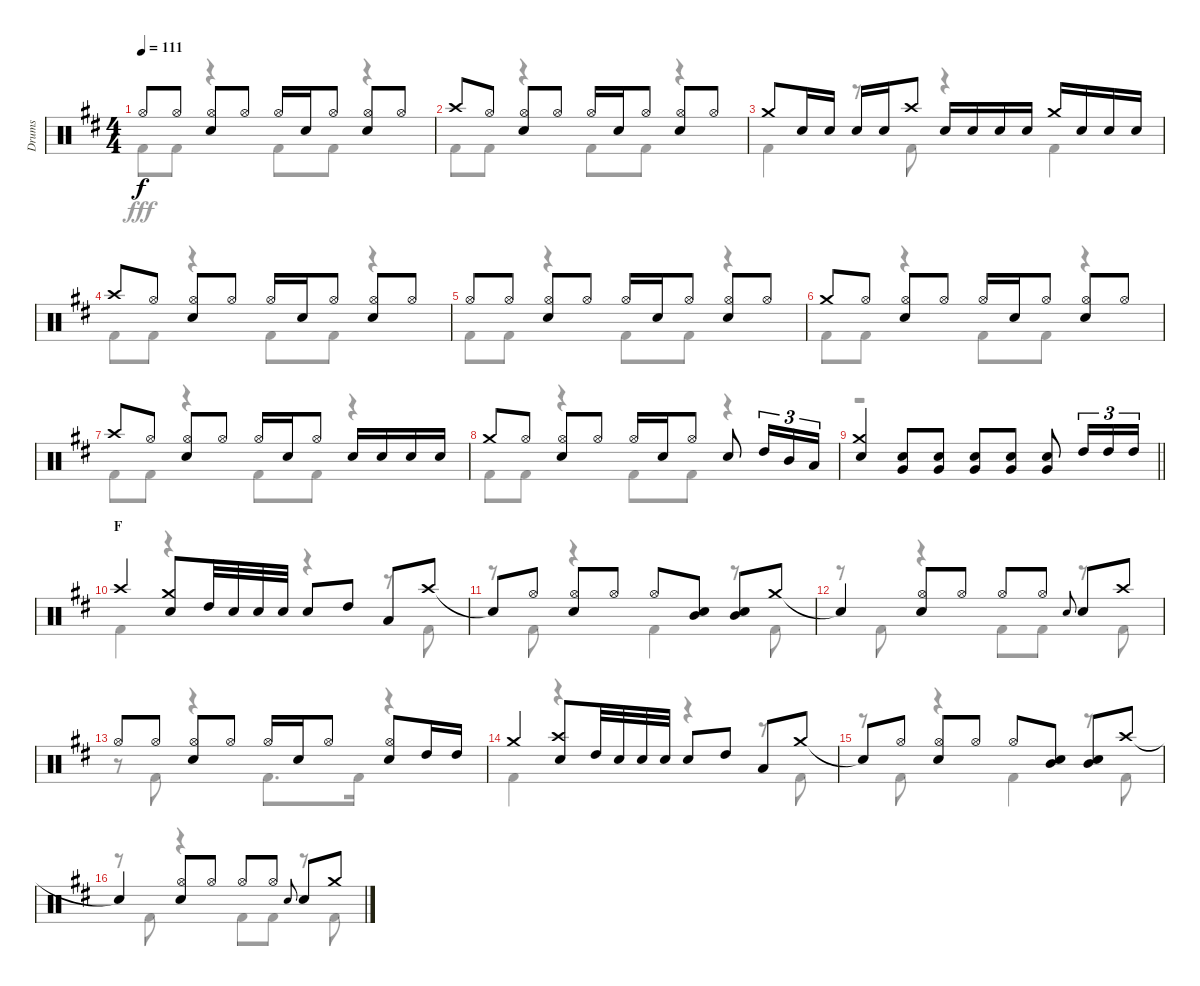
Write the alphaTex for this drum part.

\track ("Drums" "Drums") {instrument percussion}
\staff {score}
\articulation defaults
\voice
\ts (4 4)
\tempo 111
\clef neutral
\ks d "Hi-Hat (open)".8{dy f} "Hi-Hat (open)".8
("Hi-Hat (open)" "Snare (hit) 2").8 "Hi-Hat (open)".8 "Hi-Hat (open)".16 "Snare (hit) 2".16 "Hi-Hat (open)".8 ("Hi-Hat (open)" "Snare (hit) 2").8 "Hi-Hat (open)".8 |
"Crash high (hit)".8 "Hi-Hat (open)".8 ("Hi-Hat (open)" "Snare (hit) 2").8 "Hi-Hat (open)".8 "Hi-Hat (open)".16 "Snare (hit) 2".16 "Hi-Hat (open)".8 ("Hi-Hat (open)" "Snare (hit) 2").8 "Hi-Hat (open)".8 |
"Crash medium (hit)".8 "Snare (hit) 2".16 "Snare (hit) 2".16 "Snare (hit) 2".16 "Snare (hit) 2".16 "Crash high (hit)".8 "Snare (hit) 2".16 "Snare (hit) 2".16 "Snare (hit) 2".16 "Snare (hit) 2".16 "Crash medium (hit)".16 "Snare (hit) 2".16 "Snare (hit) 2".16 "Snare (hit) 2".16 |
"Crash high (hit)".8 "Hi-Hat (open)".8 ("Hi-Hat (open)" "Snare (hit) 2").8 "Hi-Hat (open)".8 "Hi-Hat (open)".16 "Snare (hit) 2".16 "Hi-Hat (open)".8 ("Hi-Hat (open)" "Snare (hit) 2").8 "Hi-Hat (open)".8 |
"Hi-Hat (open)".8 "Hi-Hat (open)".8 ("Hi-Hat (open)" "Snare (hit) 2").8 "Hi-Hat (open)".8 "Hi-Hat (open)".16 "Snare (hit) 2".16 "Hi-Hat (open)".8 ("Hi-Hat (open)" "Snare (hit) 2").8 "Hi-Hat (open)".8 |
"Crash medium (hit)".8 "Hi-Hat (open)".8 ("Hi-Hat (open)" "Snare (hit) 2").8 "Hi-Hat (open)".8 "Hi-Hat (open)".16 "Snare (hit) 2".16 "Hi-Hat (open)".8 ("Hi-Hat (open)" "Snare (hit) 2").8 "Hi-Hat (open)".8 |
"Crash high (hit)".8 "Hi-Hat (open)".8 ("Hi-Hat (open)" "Snare (hit) 2").8 "Hi-Hat (open)".8 "Hi-Hat (open)".16 "Snare (hit) 2".16 "Hi-Hat (open)".8 "Snare (hit) 2".16 "Snare (hit) 2".16 "Snare (hit) 2".16 "Snare (hit) 2".16 |
"Crash medium (hit)".8 "Hi-Hat (open)".8 ("Hi-Hat (open)" "Snare (hit) 2").8 "Hi-Hat (open)".8 "Hi-Hat (open)".16 "Snare (hit) 2".16 "Hi-Hat (open)".8 "Snare (hit) 2".8 "High Tom (hit)".16{tu (3 2)} "Mid Tom (hit)".16{tu (3 2)} "Low Tom (hit)".16{tu (3 2)} |
\barLineRight lightlight
("Crash medium (hit)" "Snare (hit) 2").4 ("Snare (hit) 2" "Very Low Tom (hit)").8 ("Snare (hit) 2" "Very Low Tom (hit)").8 ("Snare (hit) 2" "Very Low Tom (hit)").8 ("Snare (hit) 2" "Very Low Tom (hit)").8 ("Snare (hit) 2" "Very Low Tom (hit)").8 "High Tom (hit)".16{tu (3 2)} "High Tom (hit)".16{tu (3 2)} "High Tom (hit)".16{tu (3 2)} |
\section ("" "F")
"Crash high (hit)".4 ("Crash medium (hit)" "Snare (hit) 2").8 "High Tom (hit)".32 "Snare (hit) 2".32 "Snare (hit) 2".32 "Snare (hit) 2".32 "Snare (hit) 2".8 "High Tom (hit)".8 "Low Tom (hit)".8 "Crash high (hit)".8 |
"Snare (hit)"{t}.8 "Hi-Hat (open)".8 ("Hi-Hat (open)" "Snare (hit) 2").8 "Hi-Hat (open)".8 "Hi-Hat (open)".8 ("Mid Tom (hit)" "Snare (hit) 2").8 ("Mid Tom (hit)" "Snare (hit) 2").8 "Crash medium (hit)".8 |
"Snare (hit)"{t}.4 ("Hi-Hat (open)" "Snare (hit) 2").8 "Hi-Hat (open)".8 "Hi-Hat (open)".8 "Hi-Hat (open)".8 "Snare (hit) 2".8{gr onbeat} "Snare (hit) 2".8 "Crash high (hit)".8 |
"Hi-Hat (open)".8 "Hi-Hat (open)".8 ("Hi-Hat (open)" "Snare (hit) 2").8 "Hi-Hat (open)".8 "Hi-Hat (open)".16 "Snare (hit) 2".16 "Hi-Hat (open)".8 ("Hi-Hat (open)" "Snare (hit) 2").8 "High Tom (hit)".16 "High Tom (hit)".16 |
"Crash medium (hit)".4 ("Crash high (hit)" "Snare (hit) 2").8 "High Tom (hit)".32 "Snare (hit) 2".32 "Snare (hit) 2".32 "Snare (hit) 2".32 "Snare (hit) 2".8 "High Tom (hit)".8 "Low Tom (hit)".8 "Crash medium (hit)".8 |
"Snare (hit)"{t}.8 "Hi-Hat (open)".8 ("Hi-Hat (open)" "Snare (hit) 2").8 "Hi-Hat (open)".8 "Hi-Hat (open)".8 ("Mid Tom (hit)" "Snare (hit) 2").8 ("Mid Tom (hit)" "Snare (hit) 2").8 "Crash high (hit)".8 |
"Snare (hit)"{t}.4 ("Hi-Hat (open)" "Snare (hit) 2").8 "Hi-Hat (open)".8 "Hi-Hat (open)".8 "Hi-Hat (open)".8 "Snare (hit) 2".8{gr onbeat} "Snare (hit) 2".8 "Crash medium (hit)".8
\voice
\clef neutral
\ottava regular
\simile none
\ks d "Kick (hit) 2".8{dy fff} "Kick (hit) 2".8
r.4 "Kick (hit) 2".8 "Kick (hit) 2".8 r.4 |
"Kick (hit) 2".8 "Kick (hit) 2".8 r.4 "Kick (hit) 2".8 "Kick (hit) 2".8 r.4 |
"Kick (hit) 2".4 r.8 "Kick (hit) 2".8 r.4 "Kick (hit) 2".4 |
"Kick (hit) 2".8 "Kick (hit) 2".8 r.4 "Kick (hit) 2".8 "Kick (hit) 2".8 r.4 |
"Kick (hit) 2".8 "Kick (hit) 2".8 r.4 "Kick (hit) 2".8 "Kick (hit) 2".8 r.4 |
"Kick (hit) 2".8 "Kick (hit) 2".8 r.4 "Kick (hit) 2".8 "Kick (hit) 2".8 r.4 |
"Kick (hit) 2".8 "Kick (hit) 2".8 r.4 "Kick (hit) 2".8 "Kick (hit) 2".8 r.4 |
"Kick (hit) 2".8 "Kick (hit) 2".8 r.4 "Kick (hit) 2".8 "Kick (hit) 2".8 r.4 |
\barLineRight lightlight
r.1 |
"Kick (hit) 2".4 r.4 r.4 r.8 "Kick (hit) 2".8 |
r.8 "Kick (hit) 2".8 r.4 "Kick (hit) 2".4 r.8 "Kick (hit) 2".8 |
r.8 "Kick (hit) 2".8 r.4 "Kick (hit) 2".8 "Kick (hit) 2".8 r.8 "Kick (hit) 2".8 |
r.8 "Kick (hit) 2".8 r.4 "Kick (hit) 2".8{d} "Kick (hit) 2".16 r.4 |
"Kick (hit) 2".4 r.4 r.4 r.8 "Kick (hit) 2".8 |
r.8 "Kick (hit) 2".8 r.4 "Kick (hit) 2".4 r.8 "Kick (hit) 2".8 |
r.8 "Kick (hit) 2".8 r.4 "Kick (hit) 2".8 "Kick (hit) 2".8 r.8 "Kick (hit) 2".8
